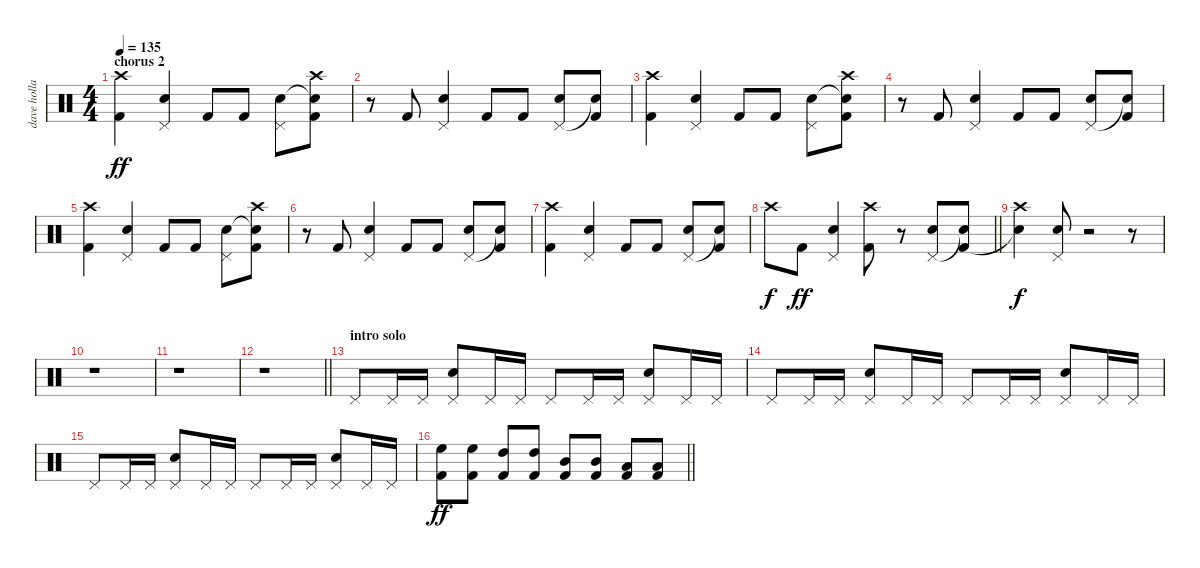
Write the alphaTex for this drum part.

\track ("dave holland" "dave holla") {instrument percussion}
\staff {score}
\articulation defaults
\ts (4 4)
\section ("" "chorus 2")
\tempo 135
\clef neutral
\ks c
("Crash high (hit)" "Kick (hit) 2").4{dy ff} ("Pedal Hi-Hat (hit)" "Electric Snare (hit)").4 "Kick (hit) 2".8 "Kick (hit) 2".8 ("Pedal Hi-Hat (hit)" "Electric Snare (hit)").8 ("Crash high (hit)" "Snare (hit)"{t} "Kick (hit) 2").8 |
r.8 "Kick (hit) 2".8 ("Pedal Hi-Hat (hit)" "Electric Snare (hit)").4 "Kick (hit) 2".8 "Kick (hit) 2".8 ("Pedal Hi-Hat (hit)" "Electric Snare (hit)").8 ("Snare (hit)"{t} "Kick (hit) 2").8 |
("Crash high (hit)" "Kick (hit) 2").4 ("Pedal Hi-Hat (hit)" "Electric Snare (hit)").4 "Kick (hit) 2".8 "Kick (hit) 2".8 ("Pedal Hi-Hat (hit)" "Electric Snare (hit)").8 ("Crash high (hit)" "Snare (hit)"{t} "Kick (hit) 2").8 |
r.8 "Kick (hit) 2".8 ("Pedal Hi-Hat (hit)" "Electric Snare (hit)").4 "Kick (hit) 2".8 "Kick (hit) 2".8 ("Pedal Hi-Hat (hit)" "Electric Snare (hit)").8 ("Snare (hit)"{t} "Kick (hit) 2").8 |
("Crash high (hit)" "Kick (hit) 2").4 ("Pedal Hi-Hat (hit)" "Electric Snare (hit)").4 "Kick (hit) 2".8 "Kick (hit) 2".8 ("Pedal Hi-Hat (hit)" "Electric Snare (hit)").8 ("Crash high (hit)" "Snare (hit)"{t} "Kick (hit) 2").8 |
r.8 "Kick (hit) 2".8 ("Pedal Hi-Hat (hit)" "Electric Snare (hit)").4 "Kick (hit) 2".8 "Kick (hit) 2".8 ("Pedal Hi-Hat (hit)" "Electric Snare (hit)").8 ("Snare (hit)"{t} "Kick (hit) 2").8 |
("Crash high (hit)" "Kick (hit) 2").4 ("Pedal Hi-Hat (hit)" "Electric Snare (hit)").4 "Kick (hit) 2".8 "Kick (hit) 2".8 ("Pedal Hi-Hat (hit)" "Electric Snare (hit)").8 ("Snare (hit)"{t} "Kick (hit) 2").8 |
\barLineRight lightlight "Crash high (hit)".8{dy f} "Kick (hit) 2".8{dy ff}
("Pedal Hi-Hat (hit)" "Electric Snare (hit)").4 ("Crash high (hit)" "Kick (hit) 2").8 r.8 ("Pedal Hi-Hat (hit)" "Electric Snare (hit)").8 ("Snare (hit)"{t} "Kick (hit) 2").8 |
("Crash high (hit)" "Snare (hit)"{t}).4{dy f} ("Pedal Hi-Hat (hit)" "Electric Snare (hit)").8 r.2 r.8 |
r.1 |
r.1 |
\barLineRight lightlight
r.1 |
\section ("" "intro solo")
"Pedal Hi-Hat (hit)".8 "Pedal Hi-Hat (hit)".16 "Pedal Hi-Hat (hit)".16 ("Pedal Hi-Hat (hit)" "Electric Snare (hit)").8 "Pedal Hi-Hat (hit)".16 "Pedal Hi-Hat (hit)".16 "Pedal Hi-Hat (hit)".8 "Pedal Hi-Hat (hit)".16 "Pedal Hi-Hat (hit)".16 ("Pedal Hi-Hat (hit)" "Electric Snare (hit)").8 "Pedal Hi-Hat (hit)".16 "Pedal Hi-Hat (hit)".16 |
"Pedal Hi-Hat (hit)".8 "Pedal Hi-Hat (hit)".16 "Pedal Hi-Hat (hit)".16 ("Pedal Hi-Hat (hit)" "Electric Snare (hit)").8 "Pedal Hi-Hat (hit)".16 "Pedal Hi-Hat (hit)".16 "Pedal Hi-Hat (hit)".8 "Pedal Hi-Hat (hit)".16 "Pedal Hi-Hat (hit)".16 ("Pedal Hi-Hat (hit)" "Electric Snare (hit)").8 "Pedal Hi-Hat (hit)".16 "Pedal Hi-Hat (hit)".16 |
"Pedal Hi-Hat (hit)".8 "Pedal Hi-Hat (hit)".16 "Pedal Hi-Hat (hit)".16 ("Pedal Hi-Hat (hit)" "Electric Snare (hit)").8 "Pedal Hi-Hat (hit)".16 "Pedal Hi-Hat (hit)".16 "Pedal Hi-Hat (hit)".8 "Pedal Hi-Hat (hit)".16 "Pedal Hi-Hat (hit)".16 ("Pedal Hi-Hat (hit)" "Electric Snare (hit)").8 "Pedal Hi-Hat (hit)".16 "Pedal Hi-Hat (hit)".16 |
\barLineRight lightlight
("High Floor Tom (hit)" "Kick (hit) 2").8{dy ff} ("High Floor Tom (hit)" "Kick (hit) 2").8 ("High Tom (hit)" "Kick (hit) 2").8 ("High Tom (hit)" "Kick (hit) 2").8 ("Mid Tom (hit)" "Kick (hit) 2").8 ("Mid Tom (hit)" "Kick (hit) 2").8 ("Low Tom (hit)" "Kick (hit) 2").8 ("Low Tom (hit)" "Kick (hit) 2").8
